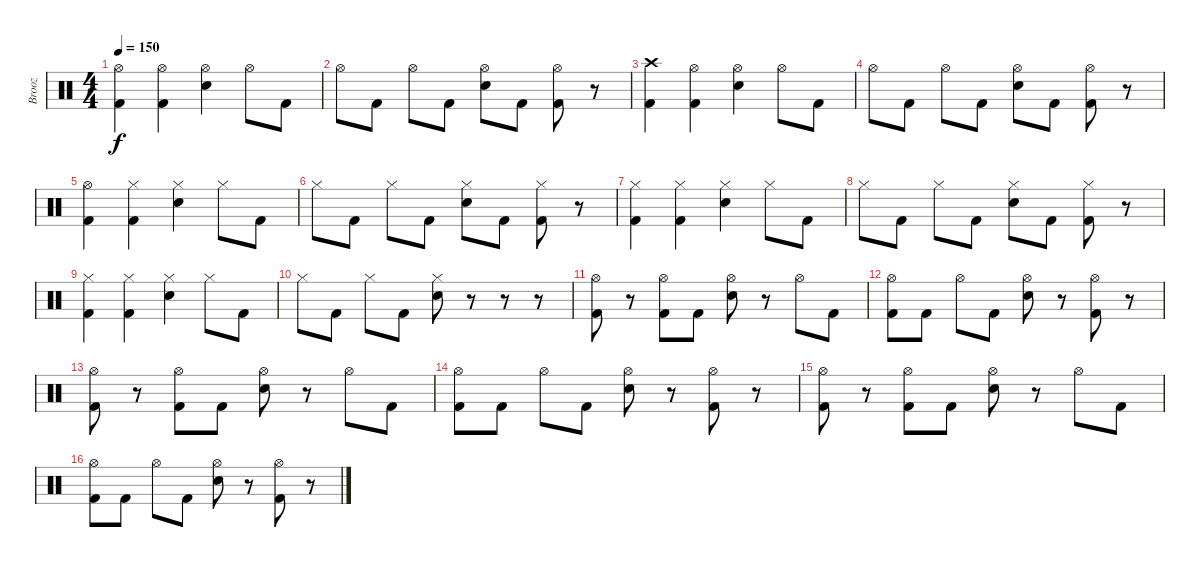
\track ("Brooz" "Brooz") {instrument percussion}
\staff {score}
\articulation defaults
\ts (4 4)
\tempo 150
\clef neutral
\ks c
("Hi-Hat (open)" "Kick (hit) 2").4{dy f} ("Hi-Hat (open)" "Kick (hit) 2").4 ("Hi-Hat (open)" "Electric Snare (hit)").4 "Hi-Hat (open)".8 "Kick (hit) 2".8 |
"Hi-Hat (open)".8 "Kick (hit) 2".8 "Hi-Hat (open)".8 "Kick (hit) 2".8 ("Hi-Hat (open)" "Electric Snare (hit)").8 "Kick (hit) 2".8 ("Hi-Hat (open)" "Kick (hit) 2").8 r.8 |
("Crash high (hit)" "Kick (hit) 2").4 ("Hi-Hat (open)" "Kick (hit) 2").4 ("Hi-Hat (open)" "Electric Snare (hit)").4 "Hi-Hat (open)".8 "Kick (hit) 2".8 |
"Hi-Hat (open)".8 "Kick (hit) 2".8 "Hi-Hat (open)".8 "Kick (hit) 2".8 ("Hi-Hat (open)" "Electric Snare (hit)").8 "Kick (hit) 2".8 ("Hi-Hat (open)" "Kick (hit) 2").8 r.8 |
("Hi-Hat (open)" "Kick (hit) 2").4 ("Hi-Hat (closed)" "Kick (hit) 2").4 ("Hi-Hat (closed)" "Electric Snare (hit)").4 "Hi-Hat (closed)".8 "Kick (hit) 2".8 |
"Hi-Hat (closed)".8 "Kick (hit) 2".8 "Hi-Hat (closed)".8 "Kick (hit) 2".8 ("Hi-Hat (closed)" "Electric Snare (hit)").8 "Kick (hit) 2".8 ("Hi-Hat (closed)" "Kick (hit) 2").8 r.8 |
("Hi-Hat (closed)" "Kick (hit) 2").4 ("Hi-Hat (closed)" "Kick (hit) 2").4 ("Hi-Hat (closed)" "Electric Snare (hit)").4 "Hi-Hat (closed)".8 "Kick (hit) 2".8 |
"Hi-Hat (closed)".8 "Kick (hit) 2".8 "Hi-Hat (closed)".8 "Kick (hit) 2".8 ("Hi-Hat (closed)" "Electric Snare (hit)").8 "Kick (hit) 2".8 ("Hi-Hat (closed)" "Kick (hit) 2").8 r.8 |
("Hi-Hat (closed)" "Kick (hit) 2").4 ("Hi-Hat (closed)" "Kick (hit) 2").4 ("Hi-Hat (closed)" "Electric Snare (hit)").4 "Hi-Hat (closed)".8 "Kick (hit) 2".8 |
"Hi-Hat (closed)".8 "Kick (hit) 2".8 "Hi-Hat (closed)".8 "Kick (hit) 2".8 ("Hi-Hat (closed)" "Electric Snare (hit)").8 r.8 r.8 r.8 |
("Hi-Hat (open)" "Kick (hit) 2").8 r.8 ("Hi-Hat (open)" "Kick (hit) 2").8 "Kick (hit) 2".8 ("Hi-Hat (open)" "Electric Snare (hit)").8 r.8 "Hi-Hat (open)".8 "Kick (hit) 2".8 |
("Hi-Hat (open)" "Kick (hit) 2").8 "Kick (hit) 2".8 "Hi-Hat (open)".8 "Kick (hit) 2".8 ("Hi-Hat (open)" "Electric Snare (hit)").8 r.8 ("Hi-Hat (open)" "Kick (hit) 2").8 r.8 |
("Hi-Hat (open)" "Kick (hit) 2").8 r.8 ("Hi-Hat (open)" "Kick (hit) 2").8 "Kick (hit) 2".8 ("Hi-Hat (open)" "Electric Snare (hit)").8 r.8 "Hi-Hat (open)".8 "Kick (hit) 2".8 |
("Hi-Hat (open)" "Kick (hit) 2").8 "Kick (hit) 2".8 "Hi-Hat (open)".8 "Kick (hit) 2".8 ("Hi-Hat (open)" "Electric Snare (hit)").8 r.8 ("Hi-Hat (open)" "Kick (hit) 2").8 r.8 |
("Hi-Hat (open)" "Kick (hit) 2").8 r.8 ("Hi-Hat (open)" "Kick (hit) 2").8 "Kick (hit) 2".8 ("Hi-Hat (open)" "Electric Snare (hit)").8 r.8 "Hi-Hat (open)".8 "Kick (hit) 2".8 |
("Hi-Hat (open)" "Kick (hit) 2").8 "Kick (hit) 2".8 "Hi-Hat (open)".8 "Kick (hit) 2".8 ("Hi-Hat (open)" "Electric Snare (hit)").8 r.8 ("Hi-Hat (open)" "Kick (hit) 2").8 r.8
